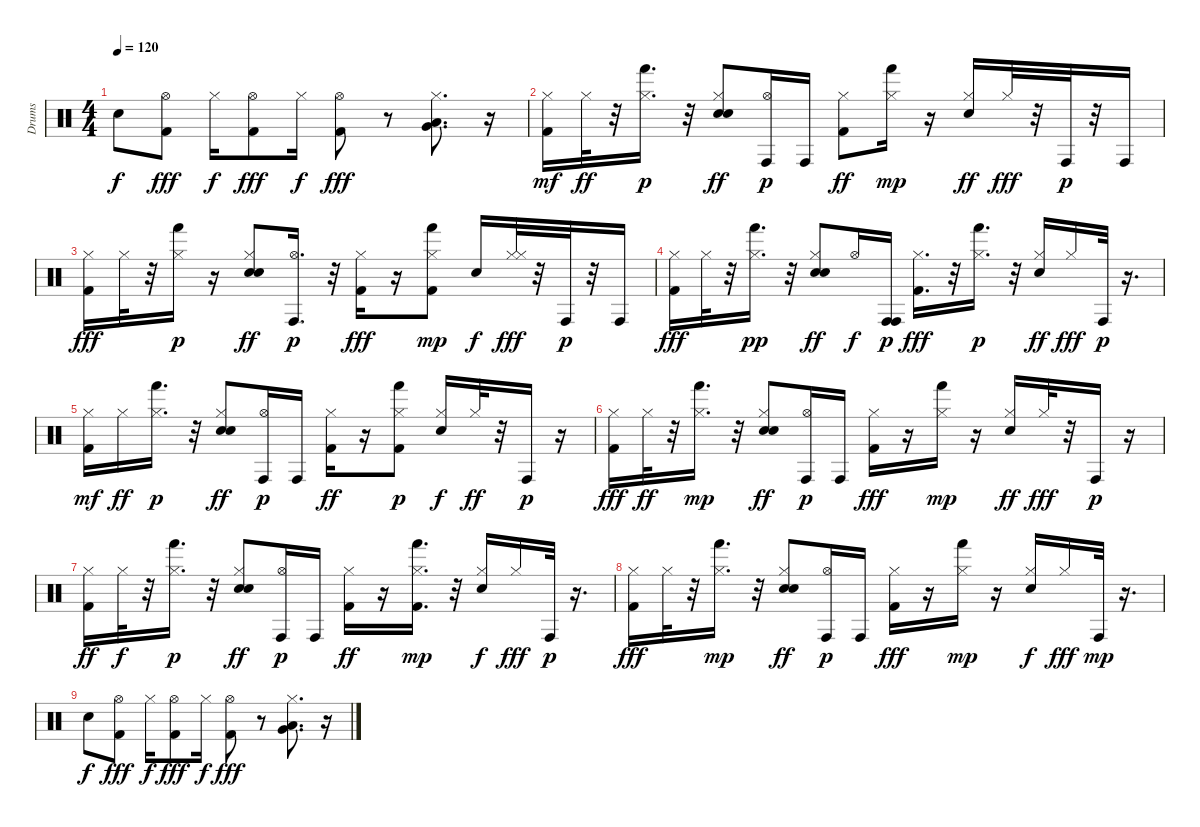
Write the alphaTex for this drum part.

\track ("Drums" "Drums") {instrument percussion}
\staff {score}
\articulation defaults
\ts (4 4)
\tempo 120
\clef neutral
\ks c "Electric Snare (hit)".8{dy f}
("Kick (hit) 2" "Hi-Hat (open)").8{dy fff} "Hi-Hat (closed)".16{dy f} ("Kick (hit) 2" "Hi-Hat (open)").8{dy fff} "Hi-Hat (closed)".16{dy f} ("Hi-Hat (open)" "Kick (hit) 2").8{dy fff} r.8 ("Low Floor Tom (hit)" "Hi-Hat (closed)" "Very Low Tom (hit)").8{d} r.16 |
("Kick (hit) 2" "Hi-Hat (closed)").16{dy mf} "Hi-Hat (closed)".32{dy ff} r.32 ("Hi-Hat (closed)" "Hand (hit)").16{d dy p} r.32 ("Hi-Hat (closed)" "Hand Clap (hit)" "Electric Snare (hit)").8{dy ff} ("Hi-Hat (open)" "Conga high (hit)").16{dy p} "Conga high (hit)".16 ("Kick (hit) 2" "Hi-Hat (closed)").8{dy ff} ("Hi-Hat (closed)" "Hand (hit)").16{dy mp} r.16 ("Hi-Hat (closed)" "Electric Snare (hit)").16{dy ff} "Hi-Hat (closed)".32{dy fff} r.32 "Conga high (hit)".32{dy p} r.32 "Conga high (hit)".16 |
("Kick (hit) 2" "Hi-Hat (closed)").16{dy fff} "Hi-Hat (closed)".32 r.32 ("Hi-Hat (closed)" "Hand (hit)").16{dy p} r.16 ("Hi-Hat (closed)" "Electric Snare (hit)" "Hand Clap (hit)").8{dy ff} ("Hi-Hat (open)" "Conga high (hit)").16{d dy p} r.32 ("Kick (hit) 2" "Hi-Hat (closed)").16{dy fff} r.16 ("Kick (hit) 2" "Hi-Hat (closed)" "Hand (hit)").8{dy mp} "Electric Snare (hit)".16{dy f} ("Hi-Hat (closed)" "Hi-Hat (closed)").32{dy fff} r.32 "Conga high (hit)".32{dy p} r.32 "Conga high (hit)".16 |
("Kick (hit) 2" "Hi-Hat (closed)").16{dy fff} "Hi-Hat (closed)".32 r.32 ("Hi-Hat (closed)" "Hand (hit)").16{d dy pp} r.32 ("Hi-Hat (closed)" "Electric Snare (hit)" "Hand Clap (hit)").8{dy ff} "Hi-Hat (open)".16{dy f} ("Conga high (hit)" "Conga high (hit)").16{dy p} ("Kick (hit) 2" "Hi-Hat (closed)").16{d dy fff} r.32 ("Hi-Hat (closed)" "Hand (hit)").16{d dy p} r.32 ("Hi-Hat (closed)" "Electric Snare (hit)").16{dy ff} "Hi-Hat (closed)".16{dy fff} "Conga high (hit)".32{dy p} r.16{d} |
("Kick (hit) 2" "Hi-Hat (closed)").16{dy mf} "Hi-Hat (closed)".16{dy ff} ("Hi-Hat (closed)" "Hand (hit)").16{d dy p} r.32 ("Hi-Hat (closed)" "Electric Snare (hit)" "Hand Clap (hit)").8{dy ff} ("Hi-Hat (open)" "Conga high (hit)").16{dy p} "Conga high (hit)".16 ("Kick (hit) 2" "Hi-Hat (closed)").16{dy ff} r.16 ("Kick (hit) 2" "Hi-Hat (closed)" "Hand (hit)").8{dy p} ("Hi-Hat (closed)" "Electric Snare (hit)").16{dy f} "Hi-Hat (closed)".32{dy ff} r.32 "Conga high (hit)".16{dy p} r.16 |
("Kick (hit) 2" "Hi-Hat (closed)").16{dy fff} "Hi-Hat (closed)".32{dy ff} r.32 ("Hi-Hat (closed)" "Hand (hit)").16{d dy mp} r.32 ("Hi-Hat (closed)" "Electric Snare (hit)" "Hand Clap (hit)").8{dy ff} ("Hi-Hat (open)" "Conga high (hit)").16{dy p} "Conga high (hit)".16 ("Kick (hit) 2" "Hi-Hat (closed)").16{dy fff} r.16 ("Hi-Hat (closed)" "Hand (hit)").16{dy mp} r.16 ("Hi-Hat (closed)" "Electric Snare (hit)").16{dy ff} "Hi-Hat (closed)".32{dy fff} r.32 "Conga high (hit)".16{dy p} r.16 |
("Kick (hit) 2" "Hi-Hat (closed)").16{dy ff} "Hi-Hat (closed)".32{dy f} r.32 ("Hi-Hat (closed)" "Hand (hit)").16{d dy p} r.32 ("Hi-Hat (closed)" "Hand Clap (hit)" "Electric Snare (hit)").8{dy ff} ("Hi-Hat (open)" "Conga high (hit)").16{dy p} "Conga high (hit)".16 ("Kick (hit) 2" "Hi-Hat (closed)").16{dy ff} r.16 ("Kick (hit) 2" "Hi-Hat (closed)" "Hand (hit)").16{d dy mp} r.32 ("Hi-Hat (closed)" "Electric Snare (hit)").16{dy f} "Hi-Hat (closed)".16{dy fff} "Conga high (hit)".32{dy p} r.16{d} |
("Kick (hit) 2" "Hi-Hat (closed)").16{dy fff} "Hi-Hat (closed)".32 r.32 ("Hi-Hat (closed)" "Hand (hit)").16{d dy mp} r.32 ("Hi-Hat (closed)" "Electric Snare (hit)" "Hand Clap (hit)").8{dy ff} ("Hi-Hat (open)" "Conga high (hit)").16{dy p} "Conga high (hit)".16 ("Kick (hit) 2" "Hi-Hat (closed)").16{dy fff} r.16 ("Hi-Hat (closed)" "Hand (hit)").16{dy mp} r.16 ("Hi-Hat (closed)" "Electric Snare (hit)").16{dy f} "Hi-Hat (closed)".16{dy fff} "Conga high (hit)".32{dy mp} r.16{d} |
"Electric Snare (hit)".8{dy f} ("Kick (hit) 2" "Hi-Hat (open)").8{dy fff} "Hi-Hat (closed)".16{dy f} ("Kick (hit) 2" "Hi-Hat (open)").8{dy fff} "Hi-Hat (closed)".16{dy f} ("Hi-Hat (open)" "Kick (hit) 2").8{dy fff} r.8 ("Low Floor Tom (hit)" "Hi-Hat (closed)" "Very Low Tom (hit)").8{d} r.16
